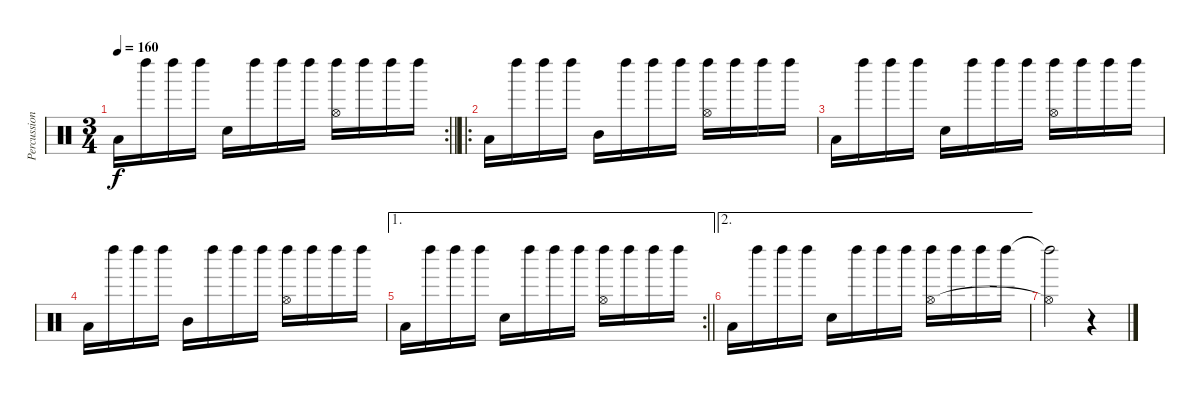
\track ("Percussion" "Percussion") {instrument percussion}
\staff {score}
\articulation defaults
\rc 2
\ts (3 4)
\tempo 160
\clef neutral
\barLineRight lightlight
\ks c "Low Floor Tom (hit)".16{dy f} "Left Maraca (hit)".16 "Left Maraca (hit)".16 "Left Maraca (hit)".16 "Snare (hit) 2".16 "Left Maraca (hit)".16 "Left Maraca (hit)".16 "Left Maraca (hit)".16
("Left Maraca (hit)" "Hi-Hat (open)").16 "Left Maraca (hit)".16 "Left Maraca (hit)".16 "Left Maraca (hit)".16 |
\ro "Low Floor Tom (hit)".16 "Left Maraca (hit)".16 "Left Maraca (hit)".16 "Left Maraca (hit)".16 "Mid Tom (hit)".16 "Left Maraca (hit)".16 "Left Maraca (hit)".16 "Left Maraca (hit)".16
("Left Maraca (hit)" "Hi-Hat (open)").16 "Left Maraca (hit)".16 "Left Maraca (hit)".16 "Left Maraca (hit)".16 |
"Low Floor Tom (hit)".16 "Left Maraca (hit)".16 "Left Maraca (hit)".16 "Left Maraca (hit)".16 "Snare (hit) 2".16 "Left Maraca (hit)".16 "Left Maraca (hit)".16 "Left Maraca (hit)".16 ("Left Maraca (hit)" "Hi-Hat (open)").16 "Left Maraca (hit)".16 "Left Maraca (hit)".16 "Left Maraca (hit)".16 |
"Low Floor Tom (hit)".16 "Left Maraca (hit)".16 "Left Maraca (hit)".16 "Left Maraca (hit)".16 "Mid Tom (hit)".16 "Left Maraca (hit)".16 "Left Maraca (hit)".16 "Left Maraca (hit)".16 ("Left Maraca (hit)" "Hi-Hat (open)").16 "Left Maraca (hit)".16 "Left Maraca (hit)".16 "Left Maraca (hit)".16 |
\ae 1
\rc 2
\barLineRight lightlight "Low Floor Tom (hit)".16 "Left Maraca (hit)".16 "Left Maraca (hit)".16 "Left Maraca (hit)".16 "Snare (hit) 2".16 "Left Maraca (hit)".16 "Left Maraca (hit)".16 "Left Maraca (hit)".16
("Left Maraca (hit)" "Hi-Hat (open)").16 "Left Maraca (hit)".16 "Left Maraca (hit)".16 "Left Maraca (hit)".16 |
\ae 2 "Low Floor Tom (hit)".16 "Left Maraca (hit)".16 "Left Maraca (hit)".16 "Left Maraca (hit)".16 "Snare (hit) 2".16 "Left Maraca (hit)".16 "Left Maraca (hit)".16 "Left Maraca (hit)".16
("Left Maraca (hit)" "Hi-Hat (open)").16 "Left Maraca (hit)".16 "Left Maraca (hit)".16 "Left Maraca (hit)".16 |
("Left Maraca (hit)"{t} "Hi-Hat (open)"{t}).2 r.4
